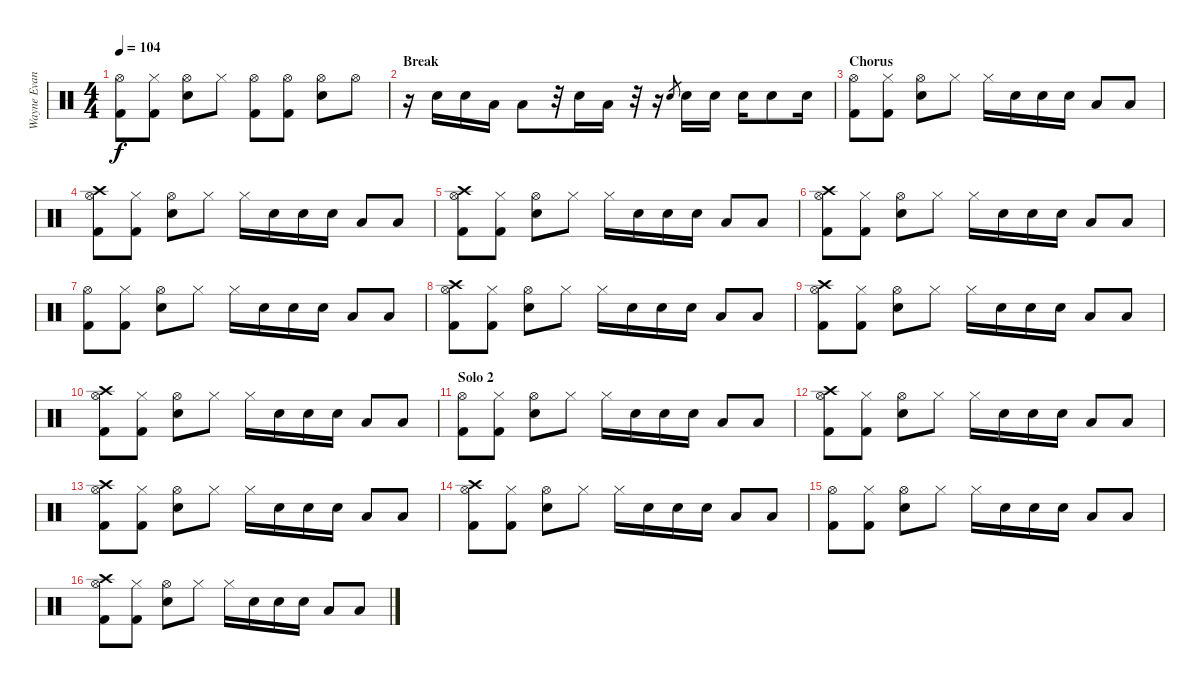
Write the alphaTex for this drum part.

\track ("Wayne Evans " "Wayne Evan") {instrument percussion}
\staff {score}
\articulation defaults
\ts (4 4)
\tempo 104
\clef neutral
\ks c
("Hi-Hat (open)" "Kick (hit) 2").8{dy f} ("Hi-Hat (closed)" "Kick (hit) 2").8 ("Hi-Hat (open)" "Electric Snare (hit)").8 "Hi-Hat (closed)".8 ("Hi-Hat (open)" "Kick (hit) 2").8 ("Hi-Hat (open)" "Kick (hit) 2").8 ("Hi-Hat (open)" "Electric Snare (hit)").8 "Hi-Hat (open)".8 |
\section ("" "Break")
r.16 "Electric Snare (hit)".16 "Electric Snare (hit)".16 "Low Tom (hit)".16 "Low Tom (hit)".8 r.32 "Electric Snare (hit)".16 "Low Tom (hit)".16 r.32 r.16 "Electric Snare (hit)".8{gr} "Electric Snare (hit)".16 "Electric Snare (hit)".16 "Electric Snare (hit)".16 "Electric Snare (hit)".8 "Electric Snare (hit)".16 |
\section ("" "Chorus")
("Hi-Hat (open)" "Kick (hit) 2").8 ("Hi-Hat (closed)" "Kick (hit) 2").8 ("Hi-Hat (open)" "Electric Snare (hit)").8 "Hi-Hat (closed)".8 "Hi-Hat (closed)".16 "Electric Snare (hit)".16 "Electric Snare (hit)".16 "Electric Snare (hit)".16 "Low Tom (hit)".8 "Low Tom (hit)".8 |
("Crash high (hit)" "Hi-Hat (open)" "Kick (hit) 2").8 ("Hi-Hat (closed)" "Kick (hit) 2").8 ("Hi-Hat (open)" "Electric Snare (hit)").8 "Hi-Hat (closed)".8 "Hi-Hat (closed)".16 "Electric Snare (hit)".16 "Electric Snare (hit)".16 "Electric Snare (hit)".16 "Low Tom (hit)".8 "Low Tom (hit)".8 |
("Crash high (hit)" "Hi-Hat (open)" "Kick (hit) 2").8 ("Hi-Hat (closed)" "Kick (hit) 2").8 ("Hi-Hat (open)" "Electric Snare (hit)").8 "Hi-Hat (closed)".8 "Hi-Hat (closed)".16 "Electric Snare (hit)".16 "Electric Snare (hit)".16 "Electric Snare (hit)".16 "Low Tom (hit)".8 "Low Tom (hit)".8 |
("Crash high (hit)" "Hi-Hat (open)" "Kick (hit) 2").8 ("Hi-Hat (closed)" "Kick (hit) 2").8 ("Hi-Hat (open)" "Electric Snare (hit)").8 "Hi-Hat (closed)".8 "Hi-Hat (closed)".16 "Electric Snare (hit)".16 "Electric Snare (hit)".16 "Electric Snare (hit)".16 "Low Tom (hit)".8 "Low Tom (hit)".8 |
("Hi-Hat (open)" "Kick (hit) 2").8 ("Hi-Hat (closed)" "Kick (hit) 2").8 ("Hi-Hat (open)" "Electric Snare (hit)").8 "Hi-Hat (closed)".8 "Hi-Hat (closed)".16 "Electric Snare (hit)".16 "Electric Snare (hit)".16 "Electric Snare (hit)".16 "Low Tom (hit)".8 "Low Tom (hit)".8 |
("Crash high (hit)" "Hi-Hat (open)" "Kick (hit) 2").8 ("Hi-Hat (closed)" "Kick (hit) 2").8 ("Hi-Hat (open)" "Electric Snare (hit)").8 "Hi-Hat (closed)".8 "Hi-Hat (closed)".16 "Electric Snare (hit)".16 "Electric Snare (hit)".16 "Electric Snare (hit)".16 "Low Tom (hit)".8 "Low Tom (hit)".8 |
("Crash high (hit)" "Hi-Hat (open)" "Kick (hit) 2").8 ("Hi-Hat (closed)" "Kick (hit) 2").8 ("Hi-Hat (open)" "Electric Snare (hit)").8 "Hi-Hat (closed)".8 "Hi-Hat (closed)".16 "Electric Snare (hit)".16 "Electric Snare (hit)".16 "Electric Snare (hit)".16 "Low Tom (hit)".8 "Low Tom (hit)".8 |
("Crash high (hit)" "Hi-Hat (open)" "Kick (hit) 2").8 ("Hi-Hat (closed)" "Kick (hit) 2").8 ("Hi-Hat (open)" "Electric Snare (hit)").8 "Hi-Hat (closed)".8 "Hi-Hat (closed)".16 "Electric Snare (hit)".16 "Electric Snare (hit)".16 "Electric Snare (hit)".16 "Low Tom (hit)".8 "Low Tom (hit)".8 |
\section ("" "Solo 2")
("Hi-Hat (open)" "Kick (hit) 2").8 ("Hi-Hat (closed)" "Kick (hit) 2").8 ("Hi-Hat (open)" "Electric Snare (hit)").8 "Hi-Hat (closed)".8 "Hi-Hat (closed)".16 "Electric Snare (hit)".16 "Electric Snare (hit)".16 "Electric Snare (hit)".16 "Low Tom (hit)".8 "Low Tom (hit)".8 |
("Crash high (hit)" "Hi-Hat (open)" "Kick (hit) 2").8 ("Hi-Hat (closed)" "Kick (hit) 2").8 ("Hi-Hat (open)" "Electric Snare (hit)").8 "Hi-Hat (closed)".8 "Hi-Hat (closed)".16 "Electric Snare (hit)".16 "Electric Snare (hit)".16 "Electric Snare (hit)".16 "Low Tom (hit)".8 "Low Tom (hit)".8 |
("Crash high (hit)" "Hi-Hat (open)" "Kick (hit) 2").8 ("Hi-Hat (closed)" "Kick (hit) 2").8 ("Hi-Hat (open)" "Electric Snare (hit)").8 "Hi-Hat (closed)".8 "Hi-Hat (closed)".16 "Electric Snare (hit)".16 "Electric Snare (hit)".16 "Electric Snare (hit)".16 "Low Tom (hit)".8 "Low Tom (hit)".8 |
("Crash high (hit)" "Hi-Hat (open)" "Kick (hit) 2").8 ("Hi-Hat (closed)" "Kick (hit) 2").8 ("Hi-Hat (open)" "Electric Snare (hit)").8 "Hi-Hat (closed)".8 "Hi-Hat (closed)".16 "Electric Snare (hit)".16 "Electric Snare (hit)".16 "Electric Snare (hit)".16 "Low Tom (hit)".8 "Low Tom (hit)".8 |
("Hi-Hat (open)" "Kick (hit) 2").8 ("Hi-Hat (closed)" "Kick (hit) 2").8 ("Hi-Hat (open)" "Electric Snare (hit)").8 "Hi-Hat (closed)".8 "Hi-Hat (closed)".16 "Electric Snare (hit)".16 "Electric Snare (hit)".16 "Electric Snare (hit)".16 "Low Tom (hit)".8 "Low Tom (hit)".8 |
("Crash high (hit)" "Hi-Hat (open)" "Kick (hit) 2").8 ("Hi-Hat (closed)" "Kick (hit) 2").8 ("Hi-Hat (open)" "Electric Snare (hit)").8 "Hi-Hat (closed)".8 "Hi-Hat (closed)".16 "Electric Snare (hit)".16 "Electric Snare (hit)".16 "Electric Snare (hit)".16 "Low Tom (hit)".8 "Low Tom (hit)".8
